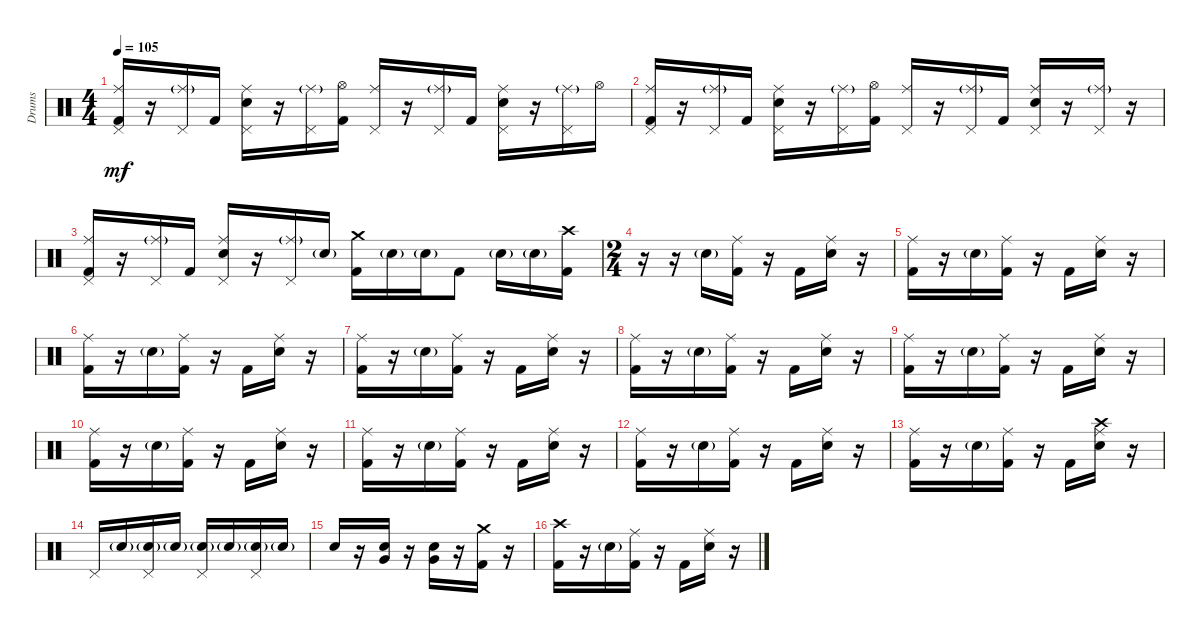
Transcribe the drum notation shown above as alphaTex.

\defaultSystemsLayout 4
\bracketExtendMode groupsimilarinstruments
\otherSystemsTrackNameOrientation horizontal
\track ("Godd" "Drums") {instrument percussion}
\staff {score}
\articulation defaults
\ts (4 4)
\tempo 105
\clef neutral
\ks c
("Pedal Hi-Hat (hit)" "Kick (hit) 2" "Ride (middle)").16{dy mf} r.16 ("Pedal Hi-Hat (hit)" "Ride (middle)"{g}).16 "Kick (hit) 2".16 ("Pedal Hi-Hat (hit)" "Snare (hit) 2" "Ride (middle)").16 r.16 ("Pedal Hi-Hat (hit)" "Ride (middle)"{g}).16 ("Kick (hit) 2" "Hi-Hat (open)").16 ("Pedal Hi-Hat (hit)" "Ride (middle)").16 r.16 ("Pedal Hi-Hat (hit)" "Ride (middle)"{g}).16 "Kick (hit) 2".16 ("Pedal Hi-Hat (hit)" "Ride (middle)" "Snare (hit) 2").16 r.16 ("Pedal Hi-Hat (hit)" "Ride (middle)"{g}).16 "Hi-Hat (open)".16 |
("Pedal Hi-Hat (hit)" "Kick (hit) 2" "Ride (middle)").16 r.16 ("Pedal Hi-Hat (hit)" "Ride (middle)"{g}).16 "Kick (hit) 2".16 ("Pedal Hi-Hat (hit)" "Snare (hit) 2" "Ride (middle)").16 r.16 ("Pedal Hi-Hat (hit)" "Ride (middle)"{g}).16 ("Kick (hit) 2" "Hi-Hat (open)").16 ("Pedal Hi-Hat (hit)" "Ride (middle)").16 r.16 ("Pedal Hi-Hat (hit)" "Ride (middle)"{g}).16 "Kick (hit) 2".16 ("Pedal Hi-Hat (hit)" "Ride (middle)" "Snare (hit) 2").16 r.16 ("Pedal Hi-Hat (hit)" "Ride (middle)"{g}).16 r.16 |
("Pedal Hi-Hat (hit)" "Kick (hit) 2" "Ride (middle)").16 r.16 ("Pedal Hi-Hat (hit)" "Ride (middle)"{g}).16 "Kick (hit) 2".16 ("Pedal Hi-Hat (hit)" "Snare (hit) 2" "Ride (middle)").16 r.16 ("Pedal Hi-Hat (hit)" "Ride (middle)"{g}).16 "Snare (hit) 2"{g}.16 ("Kick (hit) 2" "Crash medium (hit)").16 "Snare (hit) 2"{g}.16 "Snare (hit) 2"{g}.16 "Kick (hit) 2".8 "Snare (hit) 2"{g}.16 "Snare (hit) 2"{g}.16 ("Kick (hit) 2" "Crash high (hit)").16 |
\ts (2 4)
r.16 r.16 "Snare (hit) 2"{g}.16 ("Kick (hit) 2" "Ride (middle)").16 r.16 "Kick (hit) 2".16 ("Ride (middle)" "Snare (hit) 2").16 r.16 |
("Ride (middle)" "Kick (hit) 2").16 r.16 "Snare (hit) 2"{g}.16 ("Kick (hit) 2" "Ride (middle)").16 r.16 "Kick (hit) 2".16 ("Snare (hit) 2" "Ride (middle)").16 r.16 |
("Ride (middle)" "Kick (hit) 2").16 r.16 "Snare (hit) 2"{g}.16 ("Kick (hit) 2" "Ride (middle)").16 r.16 "Kick (hit) 2".16 ("Snare (hit) 2" "Ride (middle)").16 r.16 |
("Ride (middle)" "Kick (hit) 2").16 r.16 "Snare (hit) 2"{g}.16 ("Kick (hit) 2" "Ride (middle)").16 r.16 "Kick (hit) 2".16 ("Snare (hit) 2" "Ride (middle)").16 r.16 |
("Ride (middle)" "Kick (hit) 2").16 r.16 "Snare (hit) 2"{g}.16 ("Kick (hit) 2" "Ride (middle)").16 r.16 "Kick (hit) 2".16 ("Snare (hit) 2" "Ride (middle)").16 r.16 |
("Ride (middle)" "Kick (hit) 2").16 r.16 "Snare (hit) 2"{g}.16 ("Kick (hit) 2" "Ride (middle)").16 r.16 "Kick (hit) 2".16 ("Snare (hit) 2" "Ride (middle)").16 r.16 |
("Ride (middle)" "Kick (hit) 2").16 r.16 "Snare (hit) 2"{g}.16 ("Kick (hit) 2" "Ride (middle)").16 r.16 "Kick (hit) 2".16 ("Snare (hit) 2" "Ride (middle)").16 r.16 |
("Ride (middle)" "Kick (hit) 2").16 r.16 "Snare (hit) 2"{g}.16 ("Kick (hit) 2" "Ride (middle)").16 r.16 "Kick (hit) 2".16 ("Snare (hit) 2" "Ride (middle)").16 r.16 |
("Ride (middle)" "Kick (hit) 2").16 r.16 "Snare (hit) 2"{g}.16 ("Kick (hit) 2" "Ride (middle)").16 r.16 "Kick (hit) 2".16 ("Snare (hit) 2" "Ride (middle)").16 r.16 |
("Ride (middle)" "Kick (hit) 2").16 r.16 "Snare (hit) 2"{g}.16 ("Kick (hit) 2" "Ride (middle)").16 r.16 "Kick (hit) 2".16 ("Snare (hit) 2" "Ride (middle)" "Crash high (hit)").16 r.16 |
"Pedal Hi-Hat (hit)".16 "Snare (hit) 2"{g}.16 ("Snare (hit) 2"{g} "Pedal Hi-Hat (hit)").16 "Snare (hit) 2"{g}.16 ("Pedal Hi-Hat (hit)" "Snare (hit) 2"{g}).16 "Snare (hit) 2"{g}.16 ("Snare (hit) 2"{g} "Pedal Hi-Hat (hit)").16 "Snare (hit) 2"{g}.16 |
"Snare (hit) 2".16 r.16 ("Snare (hit) 2" "Very Low Tom (hit)").16 r.16 ("Snare (hit) 2" "Very Low Tom (hit)").16 r.16 ("Kick (hit) 2" "Crash medium (hit)").16 r.16 |
("Kick (hit) 2" "Crash high (hit)").16 r.16 "Snare (hit) 2"{g}.16 ("Kick (hit) 2" "Ride (middle)").16 r.16 "Kick (hit) 2".16 ("Ride (middle)" "Snare (hit) 2").16 r.16
